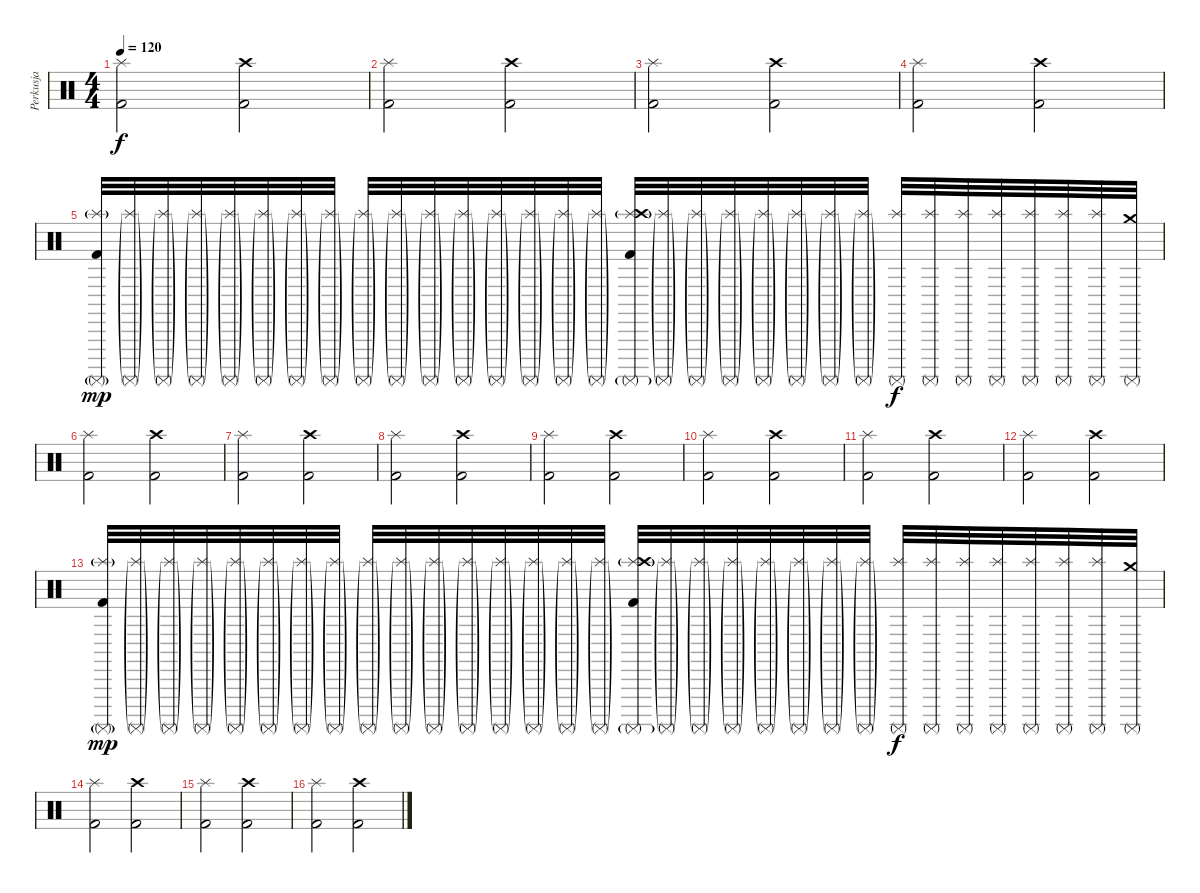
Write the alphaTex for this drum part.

\track ("Perkusja" "Perkusja") {instrument percussion}
\staff {score}
\articulation defaults
\ts (4 4)
\tempo 120
\clef neutral
\ks c
("Splash (hit)" "Kick (hit) 2").2{dy f} ("Crash high (hit)" "Kick (hit) 2").2 |
("Splash (hit)" "Kick (hit) 2").2 ("Crash high (hit)" "Kick (hit) 2").2 |
("Splash (hit)" "Kick (hit) 2").2 ("Crash high (hit)" "Kick (hit) 2").2 |
("Splash (hit)" "Kick (hit) 2").2 ("Crash high (hit)" "Kick (hit) 2").2 |
("Surdo (mute)"{g} "Splash (hit)"{g} "Kick (hit) 2").32{dy mp} ("Surdo (mute)"{g} "Splash (hit)"{g}).32 ("Surdo (mute)"{g} "Splash (hit)"{g}).32 ("Surdo (mute)"{g} "Splash (hit)"{g}).32 ("Surdo (mute)"{g} "Splash (hit)"{g}).32 ("Surdo (mute)"{g} "Splash (hit)"{g}).32 ("Surdo (mute)"{g} "Splash (hit)"{g}).32 ("Surdo (mute)"{g} "Splash (hit)"{g}).32 ("Surdo (mute)"{g} "Splash (hit)"{g}).32 ("Surdo (mute)"{g} "Splash (hit)"{g}).32 ("Surdo (mute)"{g} "Splash (hit)"{g}).32 ("Surdo (mute)"{g} "Splash (hit)"{g}).32 ("Surdo (mute)"{g} "Splash (hit)"{g}).32 ("Surdo (mute)"{g} "Splash (hit)"{g}).32 ("Surdo (mute)"{g} "Splash (hit)"{g}).32 ("Surdo (mute)"{g} "Splash (hit)"{g}).32 ("Surdo (mute)"{g} "Splash (hit)"{g} "Crash high (hit)" "Kick (hit) 2").32 ("Surdo (mute)"{g} "Splash (hit)"{g}).32 ("Surdo (mute)"{g} "Splash (hit)"{g}).32 ("Surdo (mute)"{g} "Splash (hit)"{g}).32 ("Surdo (mute)"{g} "Splash (hit)"{g}).32 ("Surdo (mute)"{g} "Splash (hit)"{g}).32 ("Surdo (mute)"{g} "Splash (hit)"{g}).32 ("Surdo (mute)"{g} "Splash (hit)"{g}).32 ("Surdo (mute)" "Splash (hit)").32{dy f} ("Surdo (mute)" "Splash (hit)").32 ("Surdo (mute)" "Splash (hit)").32 ("Surdo (mute)" "Splash (hit)").32 ("Surdo (mute)" "Splash (hit)").32 ("Surdo (mute)" "Splash (hit)").32 ("Surdo (mute)" "Splash (hit)").32 ("Surdo (mute)" "Crash medium (hit)").32 |
("Splash (hit)" "Kick (hit) 2").2 ("Crash high (hit)" "Kick (hit) 2").2 |
("Splash (hit)" "Kick (hit) 2").2 ("Crash high (hit)" "Kick (hit) 2").2 |
("Splash (hit)" "Kick (hit) 2").2 ("Crash high (hit)" "Kick (hit) 2").2 |
("Splash (hit)" "Kick (hit) 2").2 ("Crash high (hit)" "Kick (hit) 2").2 |
("Splash (hit)" "Kick (hit) 2").2 ("Crash high (hit)" "Kick (hit) 2").2 |
("Splash (hit)" "Kick (hit) 2").2 ("Crash high (hit)" "Kick (hit) 2").2 |
("Splash (hit)" "Kick (hit) 2").2 ("Crash high (hit)" "Kick (hit) 2").2 |
("Surdo (mute)"{g} "Splash (hit)"{g} "Kick (hit) 2").32{dy mp} ("Surdo (mute)"{g} "Splash (hit)"{g}).32 ("Surdo (mute)"{g} "Splash (hit)"{g}).32 ("Surdo (mute)"{g} "Splash (hit)"{g}).32 ("Surdo (mute)"{g} "Splash (hit)"{g}).32 ("Surdo (mute)"{g} "Splash (hit)"{g}).32 ("Surdo (mute)"{g} "Splash (hit)"{g}).32 ("Surdo (mute)"{g} "Splash (hit)"{g}).32 ("Surdo (mute)"{g} "Splash (hit)"{g}).32 ("Surdo (mute)"{g} "Splash (hit)"{g}).32 ("Surdo (mute)"{g} "Splash (hit)"{g}).32 ("Surdo (mute)"{g} "Splash (hit)"{g}).32 ("Surdo (mute)"{g} "Splash (hit)"{g}).32 ("Surdo (mute)"{g} "Splash (hit)"{g}).32 ("Surdo (mute)"{g} "Splash (hit)"{g}).32 ("Surdo (mute)"{g} "Splash (hit)"{g}).32 ("Surdo (mute)"{g} "Splash (hit)"{g} "Crash high (hit)" "Kick (hit) 2").32 ("Surdo (mute)"{g} "Splash (hit)"{g}).32 ("Surdo (mute)"{g} "Splash (hit)"{g}).32 ("Surdo (mute)"{g} "Splash (hit)"{g}).32 ("Surdo (mute)"{g} "Splash (hit)"{g}).32 ("Surdo (mute)"{g} "Splash (hit)"{g}).32 ("Surdo (mute)"{g} "Splash (hit)"{g}).32 ("Surdo (mute)"{g} "Splash (hit)"{g}).32 ("Surdo (mute)" "Splash (hit)").32{dy f} ("Surdo (mute)" "Splash (hit)").32 ("Surdo (mute)" "Splash (hit)").32 ("Surdo (mute)" "Splash (hit)").32 ("Surdo (mute)" "Splash (hit)").32 ("Surdo (mute)" "Splash (hit)").32 ("Surdo (mute)" "Splash (hit)").32 ("Surdo (mute)" "Crash medium (hit)").32 |
("Splash (hit)" "Kick (hit) 2").2 ("Crash high (hit)" "Kick (hit) 2").2 |
("Splash (hit)" "Kick (hit) 2").2 ("Crash high (hit)" "Kick (hit) 2").2 |
("Splash (hit)" "Kick (hit) 2").2 ("Crash high (hit)" "Kick (hit) 2").2
